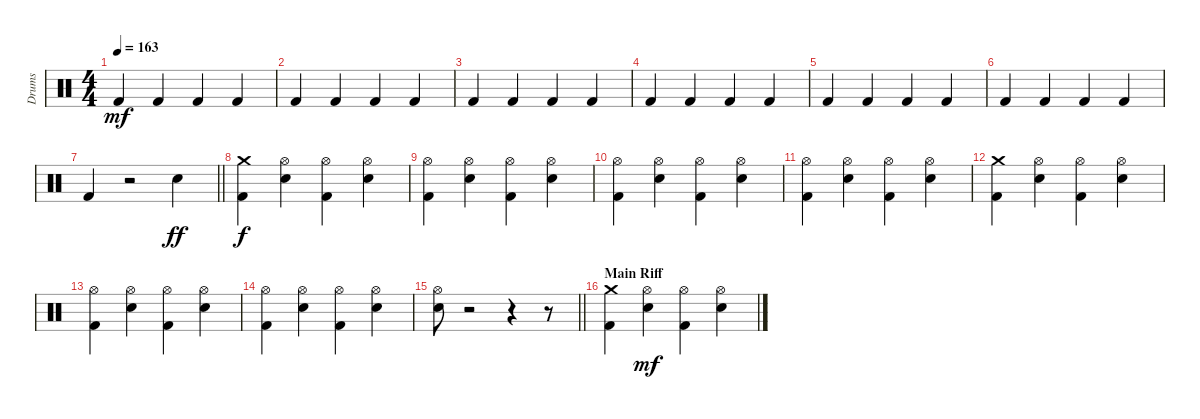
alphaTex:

\track ("Drums" "Drums") {instrument percussion}
\staff {score}
\articulation defaults
\ts (4 4)
\tempo 163
\clef neutral
\ks c "Kick (hit) 2".4{dy mf} "Kick (hit) 2".4 "Kick (hit) 2".4 "Kick (hit) 2".4
|
"Kick (hit) 2".4 "Kick (hit) 2".4 "Kick (hit) 2".4 "Kick (hit) 2".4 |
"Kick (hit) 2".4 "Kick (hit) 2".4 "Kick (hit) 2".4 "Kick (hit) 2".4 |
"Kick (hit) 2".4 "Kick (hit) 2".4 "Kick (hit) 2".4 "Kick (hit) 2".4 |
"Kick (hit) 2".4 "Kick (hit) 2".4 "Kick (hit) 2".4 "Kick (hit) 2".4 |
"Kick (hit) 2".4 "Kick (hit) 2".4 "Kick (hit) 2".4 "Kick (hit) 2".4 |
\barLineRight lightlight "Kick (hit) 2".4
r.2 "Electric Snare (hit)".4{dy ff} |
\section ("" "")
("Crash medium (hit)" "Kick (hit) 2").4{dy f} ("Hi-Hat (open)" "Electric Snare (hit)").4 ("Hi-Hat (open)" "Kick (hit) 2").4 ("Hi-Hat (open)" "Electric Snare (hit)").4 |
("Hi-Hat (open)" "Kick (hit) 2").4 ("Hi-Hat (open)" "Electric Snare (hit)").4 ("Hi-Hat (open)" "Kick (hit) 2").4 ("Hi-Hat (open)" "Electric Snare (hit)").4 |
("Hi-Hat (open)" "Kick (hit) 2").4 ("Hi-Hat (open)" "Electric Snare (hit)").4 ("Hi-Hat (open)" "Kick (hit) 2").4 ("Hi-Hat (open)" "Electric Snare (hit)").4 |
("Hi-Hat (open)" "Kick (hit) 2").4 ("Hi-Hat (open)" "Electric Snare (hit)").4 ("Hi-Hat (open)" "Kick (hit) 2").4 ("Hi-Hat (open)" "Electric Snare (hit)").4 |
("Crash medium (hit)" "Kick (hit) 2").4 ("Hi-Hat (open)" "Electric Snare (hit)").4 ("Hi-Hat (open)" "Kick (hit) 2").4 ("Hi-Hat (open)" "Electric Snare (hit)").4 |
("Hi-Hat (open)" "Kick (hit) 2").4 ("Hi-Hat (open)" "Electric Snare (hit)").4 ("Hi-Hat (open)" "Kick (hit) 2").4 ("Hi-Hat (open)" "Electric Snare (hit)").4 |
("Hi-Hat (open)" "Kick (hit) 2").4 ("Hi-Hat (open)" "Electric Snare (hit)").4 ("Hi-Hat (open)" "Kick (hit) 2").4 ("Hi-Hat (open)" "Electric Snare (hit)").4 |
\barLineRight lightlight
("Hi-Hat (open)" "Electric Snare (hit)").8 r.2 r.4 r.8 |
\section ("" "Main Riff")
("Crash medium (hit)" "Kick (hit) 2").4 ("Hi-Hat (open)" "Electric Snare (hit)").4{dy mf} ("Hi-Hat (open)" "Kick (hit) 2").4 ("Hi-Hat (open)" "Electric Snare (hit)").4
